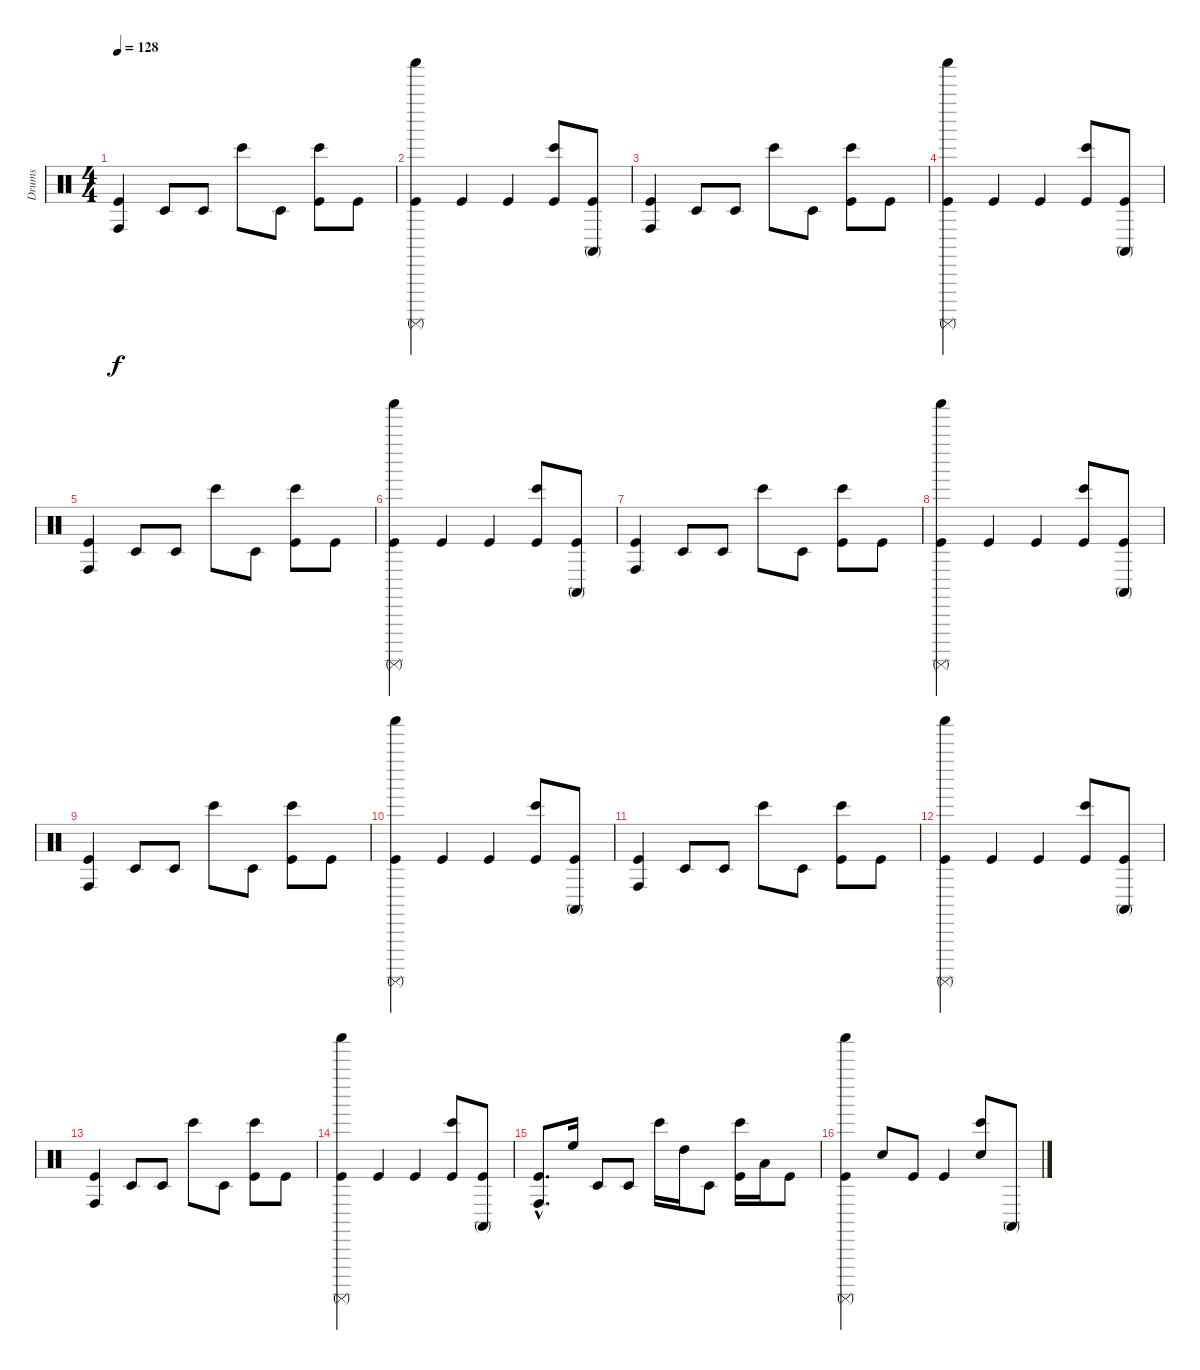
\track ("Drums" "Drums") {instrument percussion}
\staff {score}
\articulation defaults
\ts (4 4)
\tempo 128
\clef neutral
\ks c
("Conga high (hit)" "Kick (hit)").4{dy f} "Timbale low (hit)".8 "Timbale low (hit)".8 "Bongo High (hit)".8 "Timbale low (hit)".8 ("Bongo High (hit)" "Kick (hit)").8 "Kick (hit)".8 |
("Surdo (mute)" "Shaker (hit)" "Kick (hit)").4 "Kick (hit)".4 "Kick (hit)".4 ("Bongo High (hit)" "Kick (hit)").8 ("Conga high (mute)" "Kick (hit)").8 |
("Conga high (hit)" "Kick (hit)").4 "Timbale low (hit)".8 "Timbale low (hit)".8 "Bongo High (hit)".8 "Timbale low (hit)".8 ("Bongo High (hit)" "Kick (hit)").8 "Kick (hit)".8 |
("Surdo (mute)" "Shaker (hit)" "Kick (hit)").4 "Kick (hit)".4 "Kick (hit)".4 ("Bongo High (hit)" "Kick (hit)").8 ("Conga high (mute)" "Kick (hit)").8 |
("Conga high (hit)" "Kick (hit)").4 "Timbale low (hit)".8 "Timbale low (hit)".8 "Bongo High (hit)".8 "Timbale low (hit)".8 ("Bongo High (hit)" "Kick (hit)").8 "Kick (hit)".8 |
("Surdo (mute)" "Shaker (hit)" "Kick (hit)").4 "Kick (hit)".4 "Kick (hit)".4 ("Bongo High (hit)" "Kick (hit)").8 ("Conga high (mute)" "Kick (hit)").8 |
("Conga high (hit)" "Kick (hit)").4 "Timbale low (hit)".8 "Timbale low (hit)".8 "Bongo High (hit)".8 "Timbale low (hit)".8 ("Bongo High (hit)" "Kick (hit)").8 "Kick (hit)".8 |
("Surdo (mute)" "Shaker (hit)" "Kick (hit)").4 "Kick (hit)".4 "Kick (hit)".4 ("Bongo High (hit)" "Kick (hit)").8 ("Conga high (mute)" "Kick (hit)").8 |
("Conga high (hit)" "Kick (hit)").4 "Timbale low (hit)".8 "Timbale low (hit)".8 "Bongo High (hit)".8 "Timbale low (hit)".8 ("Bongo High (hit)" "Kick (hit)").8 "Kick (hit)".8 |
("Surdo (mute)" "Shaker (hit)" "Kick (hit)").4 "Kick (hit)".4 "Kick (hit)".4 ("Bongo High (hit)" "Kick (hit)").8 ("Conga high (mute)" "Kick (hit)").8 |
("Conga high (hit)" "Kick (hit)").4 "Timbale low (hit)".8 "Timbale low (hit)".8 "Bongo High (hit)".8 "Timbale low (hit)".8 ("Bongo High (hit)" "Kick (hit)").8 "Kick (hit)".8 |
("Surdo (mute)" "Shaker (hit)" "Kick (hit)").4 "Kick (hit)".4 "Kick (hit)".4 ("Bongo High (hit)" "Kick (hit)").8 ("Conga high (mute)" "Kick (hit)").8 |
("Conga high (hit)" "Kick (hit)").4 "Timbale low (hit)".8 "Timbale low (hit)".8 "Bongo High (hit)".8 "Timbale low (hit)".8 ("Bongo High (hit)" "Kick (hit)").8 "Kick (hit)".8 |
("Surdo (mute)" "Shaker (hit)" "Kick (hit)").4 "Kick (hit)".4 "Kick (hit)".4 ("Bongo High (hit)" "Kick (hit)").8 ("Conga high (mute)" "Kick (hit)").8 |
("Conga high (hit)"{hac} "Kick (hit)"{hac}).8{d} "High Floor Tom (hit)".16 "Timbale low (hit)".8 "Timbale low (hit)".8 "Bongo High (hit)".16 "High Tom (hit)".16 "Timbale low (hit)".8 ("Bongo High (hit)" "Kick (hit)").16 "Low Tom (hit)".16 "Kick (hit)".8 |
("Surdo (mute)" "Shaker (hit)" "Kick (hit)").4 "Electric Snare (hit)".8 "Kick (hit)".8 "Kick (hit)".4 ("Bongo High (hit)" "Electric Snare (hit)").8 "Conga high (mute)".8
